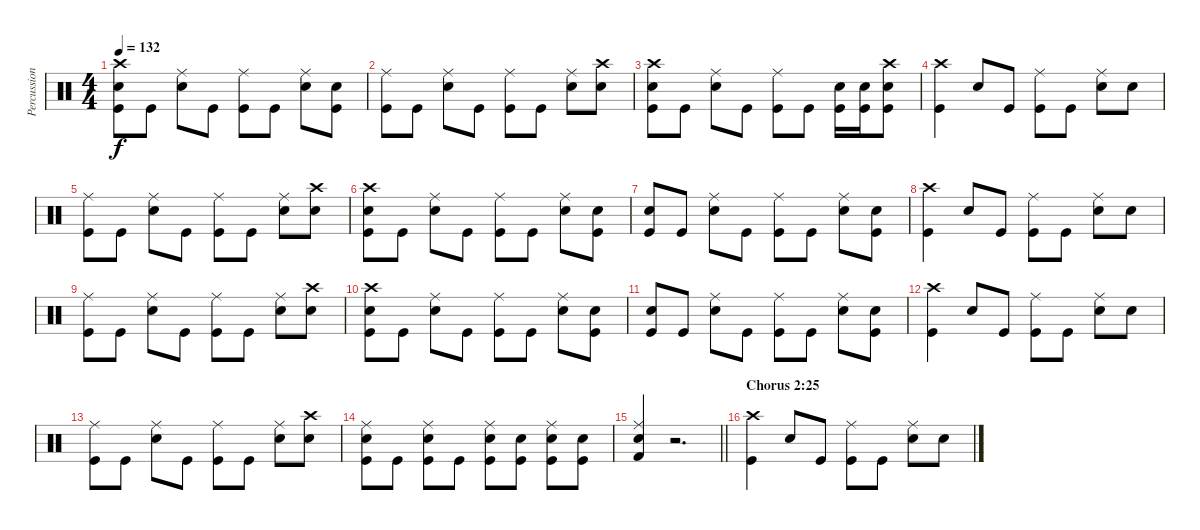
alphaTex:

\track ("Percussion" "Percussion") {instrument percussion}
\staff {score}
\articulation defaults
\ts (4 4)
\tempo 132
\clef neutral
\ks c
("Crash high (hit)" "Electric Snare (hit)" "Kick (hit)").8{dy f} "Kick (hit)".8 ("Ride (middle)" "Electric Snare (hit)").8 "Kick (hit)".8 ("Ride (middle)" "Kick (hit)").8 "Kick (hit)".8 ("Ride (middle)" "Electric Snare (hit)").8 ("Electric Snare (hit)" "Kick (hit)").8 |
("Ride (middle)" "Kick (hit)").8 "Kick (hit)".8 ("Ride (middle)" "Electric Snare (hit)").8 "Kick (hit)".8 ("Ride (middle)" "Kick (hit)").8 "Kick (hit)".8 ("Ride (middle)" "Electric Snare (hit)").8 ("Crash high (hit)" "Electric Snare (hit)").8 |
("Crash high (hit)" "Electric Snare (hit)" "Kick (hit)").8 "Kick (hit)".8 ("Ride (middle)" "Electric Snare (hit)").8 "Kick (hit)".8 ("Ride (middle)" "Kick (hit)").8 "Kick (hit)".8 ("Electric Snare (hit)" "Kick (hit)").16 ("Electric Snare (hit)" "Kick (hit)").16 ("Crash high (hit)" "Electric Snare (hit)" "Kick (hit)").8 |
("Crash high (hit)" "Kick (hit)").4 "Electric Snare (hit)".8 "Kick (hit)".8 ("Ride (middle)" "Kick (hit)").8 "Kick (hit)".8 ("Ride (middle)" "Electric Snare (hit)").8 "Electric Snare (hit)".8 |
("Ride (middle)" "Kick (hit)").8 "Kick (hit)".8 ("Ride (middle)" "Electric Snare (hit)").8 "Kick (hit)".8 ("Ride (middle)" "Kick (hit)").8 "Kick (hit)".8 ("Ride (middle)" "Electric Snare (hit)").8 ("Crash high (hit)" "Electric Snare (hit)").8 |
("Crash high (hit)" "Electric Snare (hit)" "Kick (hit)").8 "Kick (hit)".8 ("Ride (middle)" "Electric Snare (hit)").8 "Kick (hit)".8 ("Ride (middle)" "Kick (hit)").8 "Kick (hit)".8 ("Ride (middle)" "Electric Snare (hit)").8 ("Electric Snare (hit)" "Kick (hit)").8 |
("Electric Snare (hit)" "Kick (hit)").8 "Kick (hit)".8 ("Ride (middle)" "Electric Snare (hit)").8 "Kick (hit)".8 ("Ride (middle)" "Kick (hit)").8 "Kick (hit)".8 ("Ride (middle)" "Electric Snare (hit)").8 ("Electric Snare (hit)" "Kick (hit)").8 |
("Crash high (hit)" "Kick (hit)").4 "Electric Snare (hit)".8 "Kick (hit)".8 ("Ride (middle)" "Kick (hit)").8 "Kick (hit)".8 ("Ride (middle)" "Electric Snare (hit)").8 "Electric Snare (hit)".8 |
("Ride (middle)" "Kick (hit)").8 "Kick (hit)".8 ("Ride (middle)" "Electric Snare (hit)").8 "Kick (hit)".8 ("Ride (middle)" "Kick (hit)").8 "Kick (hit)".8 ("Ride (middle)" "Electric Snare (hit)").8 ("Crash high (hit)" "Electric Snare (hit)").8 |
("Crash high (hit)" "Electric Snare (hit)" "Kick (hit)").8 "Kick (hit)".8 ("Ride (middle)" "Electric Snare (hit)").8 "Kick (hit)".8 ("Ride (middle)" "Kick (hit)").8 "Kick (hit)".8 ("Ride (middle)" "Electric Snare (hit)").8 ("Electric Snare (hit)" "Kick (hit)").8 |
("Electric Snare (hit)" "Kick (hit)").8 "Kick (hit)".8 ("Ride (middle)" "Electric Snare (hit)").8 "Kick (hit)".8 ("Ride (middle)" "Kick (hit)").8 "Kick (hit)".8 ("Ride (middle)" "Electric Snare (hit)").8 ("Electric Snare (hit)" "Kick (hit)").8 |
("Crash high (hit)" "Kick (hit)").4 "Electric Snare (hit)".8 "Kick (hit)".8 ("Ride (middle)" "Kick (hit)").8 "Kick (hit)".8 ("Ride (middle)" "Electric Snare (hit)").8 "Electric Snare (hit)".8 |
("Ride (middle)" "Kick (hit)").8 "Kick (hit)".8 ("Ride (middle)" "Electric Snare (hit)").8 "Kick (hit)".8 ("Ride (middle)" "Kick (hit)").8 "Kick (hit)".8 ("Ride (middle)" "Electric Snare (hit)").8 ("Crash high (hit)" "Electric Snare (hit)").8 |
("Ride (middle)" "Electric Snare (hit)" "Kick (hit)").8 "Kick (hit)".8 ("Ride (middle)" "Electric Snare (hit)" "Kick (hit)").8 "Kick (hit)".8 ("Ride (middle)" "Electric Snare (hit)" "Kick (hit)").8 ("Electric Snare (hit)" "Kick (hit)").8 ("Ride (middle)" "Electric Snare (hit)" "Kick (hit)").8 ("Electric Snare (hit)" "Kick (hit)").8 |
\barLineRight lightlight
("Ride (middle)" "Electric Snare (hit)" "Kick (hit) 2").4 r.2{d} |
\section ("" "Chorus 2:25")
("Crash high (hit)" "Kick (hit)").4 "Electric Snare (hit)".8 "Kick (hit)".8 ("Ride (middle)" "Kick (hit)").8 "Kick (hit)".8 ("Ride (middle)" "Electric Snare (hit)").8 "Electric Snare (hit)".8
